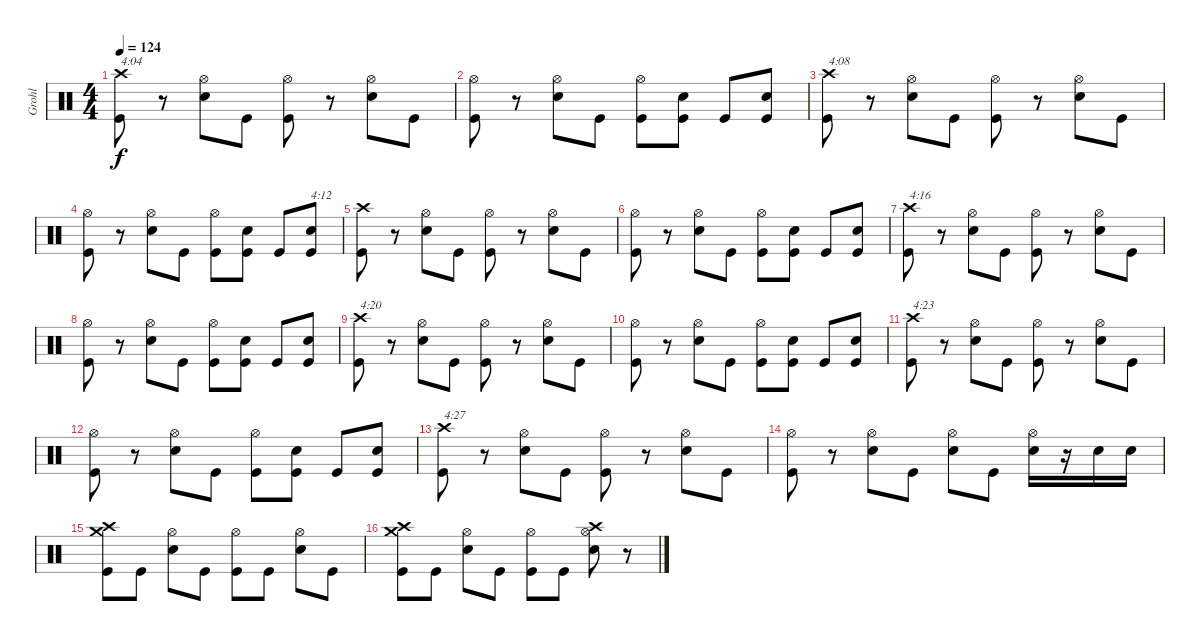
\track ("Grohl" "Grohl") {instrument percussion}
\staff {score}
\articulation defaults
\ts (4 4)
\tempo 124
\clef neutral
\ks c
("Crash high (hit)" "Kick (hit)").8{txt "4:04" dy f} r.8 ("Hi-Hat (open)" "Snare (hit) 2").8 "Kick (hit)".8 ("Hi-Hat (open)" "Kick (hit)").8 r.8 ("Hi-Hat (open)" "Snare (hit) 2").8 "Kick (hit)".8 |
("Hi-Hat (open)" "Kick (hit)").8 r.8 ("Hi-Hat (open)" "Snare (hit) 2").8 "Kick (hit)".8 ("Hi-Hat (open)" "Kick (hit)").8 ("Snare (hit) 2" "Kick (hit)").8 "Kick (hit)".8 ("Snare (hit) 2" "Kick (hit)").8 |
("Crash high (hit)" "Kick (hit)").8{txt "4:08"} r.8 ("Hi-Hat (open)" "Snare (hit) 2").8 "Kick (hit)".8 ("Hi-Hat (open)" "Kick (hit)").8 r.8 ("Hi-Hat (open)" "Snare (hit) 2").8 "Kick (hit)".8 |
("Hi-Hat (open)" "Kick (hit)").8 r.8 ("Hi-Hat (open)" "Snare (hit) 2").8 "Kick (hit)".8 ("Hi-Hat (open)" "Kick (hit)").8 ("Snare (hit) 2" "Kick (hit)").8 "Kick (hit)".8 ("Snare (hit) 2" "Kick (hit)").8{txt "4:12"} |
("Crash high (hit)" "Kick (hit)").8 r.8 ("Hi-Hat (open)" "Snare (hit) 2").8 "Kick (hit)".8 ("Hi-Hat (open)" "Kick (hit)").8 r.8 ("Hi-Hat (open)" "Snare (hit) 2").8 "Kick (hit)".8 |
("Hi-Hat (open)" "Kick (hit)").8 r.8 ("Hi-Hat (open)" "Snare (hit) 2").8 "Kick (hit)".8 ("Hi-Hat (open)" "Kick (hit)").8 ("Snare (hit) 2" "Kick (hit)").8 "Kick (hit)".8 ("Snare (hit) 2" "Kick (hit)").8 |
("Crash high (hit)" "Kick (hit)").8{txt "4:16"} r.8 ("Hi-Hat (open)" "Snare (hit) 2").8 "Kick (hit)".8 ("Hi-Hat (open)" "Kick (hit)").8 r.8 ("Hi-Hat (open)" "Snare (hit) 2").8 "Kick (hit)".8 |
("Hi-Hat (open)" "Kick (hit)").8 r.8 ("Hi-Hat (open)" "Snare (hit) 2").8 "Kick (hit)".8 ("Hi-Hat (open)" "Kick (hit)").8 ("Snare (hit) 2" "Kick (hit)").8 "Kick (hit)".8 ("Snare (hit) 2" "Kick (hit)").8 |
("Crash high (hit)" "Kick (hit)").8{txt "4:20"} r.8 ("Hi-Hat (open)" "Snare (hit) 2").8 "Kick (hit)".8 ("Hi-Hat (open)" "Kick (hit)").8 r.8 ("Hi-Hat (open)" "Snare (hit) 2").8 "Kick (hit)".8 |
("Hi-Hat (open)" "Kick (hit)").8 r.8 ("Hi-Hat (open)" "Snare (hit) 2").8 "Kick (hit)".8 ("Hi-Hat (open)" "Kick (hit)").8 ("Snare (hit) 2" "Kick (hit)").8 "Kick (hit)".8 ("Snare (hit) 2" "Kick (hit)").8 |
("Crash high (hit)" "Kick (hit)").8{txt "4:23"} r.8 ("Hi-Hat (open)" "Snare (hit) 2").8 "Kick (hit)".8 ("Hi-Hat (open)" "Kick (hit)").8 r.8 ("Hi-Hat (open)" "Snare (hit) 2").8 "Kick (hit)".8 |
("Hi-Hat (open)" "Kick (hit)").8 r.8 ("Hi-Hat (open)" "Snare (hit) 2").8 "Kick (hit)".8 ("Hi-Hat (open)" "Kick (hit)").8 ("Snare (hit) 2" "Kick (hit)").8 "Kick (hit)".8 ("Snare (hit) 2" "Kick (hit)").8 |
("Crash high (hit)" "Kick (hit)").8{txt "4:27"} r.8 ("Hi-Hat (open)" "Snare (hit) 2").8 "Kick (hit)".8 ("Hi-Hat (open)" "Kick (hit)").8 r.8 ("Hi-Hat (open)" "Snare (hit) 2").8 "Kick (hit)".8 |
("Hi-Hat (open)" "Kick (hit)").8 r.8 ("Hi-Hat (open)" "Snare (hit) 2").8 "Kick (hit)".8 ("Hi-Hat (open)" "Snare (hit) 2").8 "Kick (hit)".8 ("Hi-Hat (open)" "Snare (hit) 2").16 r.16 "Snare (hit) 2".16 "Snare (hit) 2".16 |
("Crash high (hit)" "Crash medium (hit)" "Kick (hit)").8 "Kick (hit)".8 ("Hi-Hat (open)" "Snare (hit) 2").8 "Kick (hit)".8 ("Hi-Hat (open)" "Kick (hit)").8 "Kick (hit)".8 ("Hi-Hat (open)" "Snare (hit) 2").8 "Kick (hit)".8 |
("Crash high (hit)" "Crash medium (hit)" "Kick (hit)").8 "Kick (hit)".8 ("Hi-Hat (open)" "Snare (hit) 2").8 "Kick (hit)".8 ("Hi-Hat (open)" "Kick (hit)").8 "Kick (hit)".8 ("Hi-Hat (open)" "Crash high (hit)" "Snare (hit) 2").8 r.8
